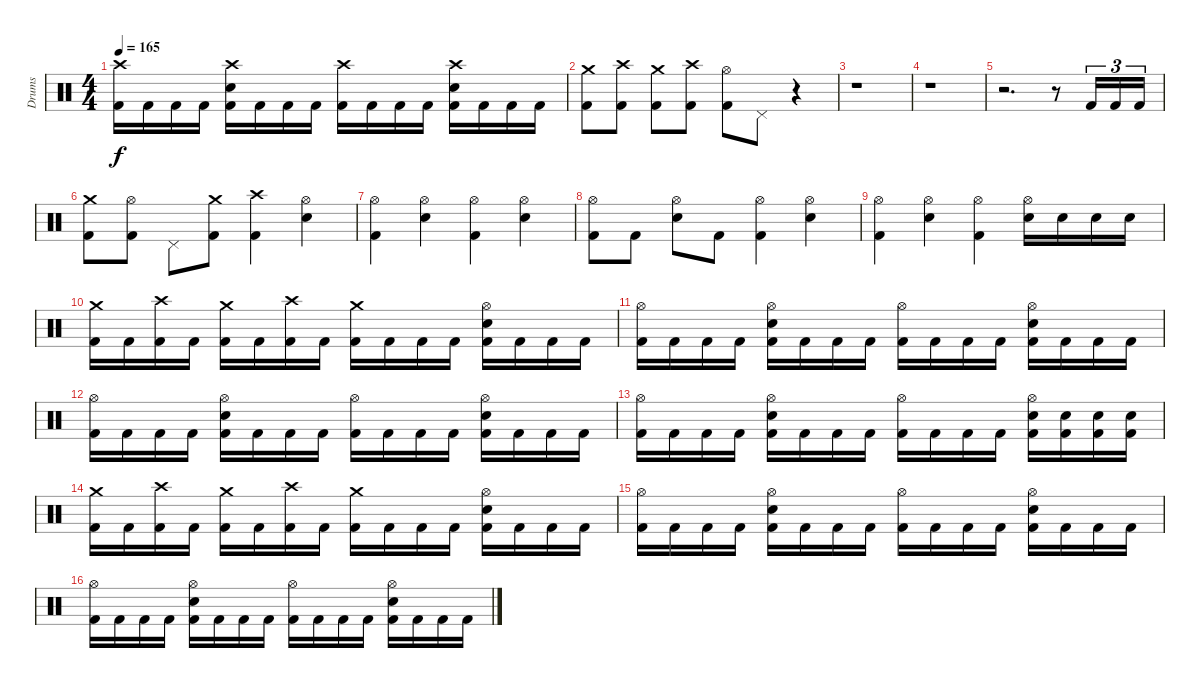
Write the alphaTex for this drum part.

\track ("Drums" "Drums") {instrument percussion}
\staff {score}
\articulation defaults
\ts (4 4)
\tempo 165
\clef neutral
\ks c
("Crash high (hit)" "Kick (hit) 2").16{dy f} "Kick (hit) 2".16 "Kick (hit) 2".16 "Kick (hit) 2".16 ("Crash high (hit)" "Electric Snare (hit)" "Kick (hit) 2").16 "Kick (hit) 2".16 "Kick (hit) 2".16 "Kick (hit) 2".16 ("Crash high (hit)" "Kick (hit) 2").16 "Kick (hit) 2".16 "Kick (hit) 2".16 "Kick (hit) 2".16 ("Crash high (hit)" "Electric Snare (hit)" "Kick (hit) 2").16 "Kick (hit) 2".16 "Kick (hit) 2".16 "Kick (hit) 2".16 |
("Crash medium (hit)" "Kick (hit) 2").8 ("Crash high (hit)" "Kick (hit) 2").8 ("Crash medium (hit)" "Kick (hit) 2").8 ("Crash high (hit)" "Kick (hit) 2").8 ("Hi-Hat (open)" "Kick (hit) 2").8 "Pedal Hi-Hat (hit)".8 r.4 |
r.1 |
r.1 |
r.2{d} r.8 "Kick (hit) 2".16{tu (3 2)} "Kick (hit) 2".16{tu (3 2)} "Kick (hit) 2".16{tu (3 2)} |
("Crash medium (hit)" "Kick (hit) 2").8 ("Hi-Hat (open)" "Kick (hit) 2").8 "Pedal Hi-Hat (hit)".8 ("Crash medium (hit)" "Kick (hit) 2").8 ("Crash high (hit)" "Kick (hit) 2").4 ("Hi-Hat (open)" "Electric Snare (hit)").4 |
("Hi-Hat (open)" "Kick (hit) 2").4 ("Hi-Hat (open)" "Electric Snare (hit)").4 ("Hi-Hat (open)" "Kick (hit) 2").4 ("Hi-Hat (open)" "Electric Snare (hit)").4 |
("Hi-Hat (open)" "Kick (hit) 2").8 "Kick (hit) 2".8 ("Hi-Hat (open)" "Electric Snare (hit)").8 "Kick (hit) 2".8 ("Hi-Hat (open)" "Kick (hit) 2").4 ("Hi-Hat (open)" "Electric Snare (hit)").4 |
("Hi-Hat (open)" "Kick (hit) 2").4 ("Hi-Hat (open)" "Electric Snare (hit)").4 ("Hi-Hat (open)" "Kick (hit) 2").4 ("Hi-Hat (open)" "Electric Snare (hit)").16 "Electric Snare (hit)".16 "Electric Snare (hit)".16 "Electric Snare (hit)".16 |
("Crash medium (hit)" "Kick (hit) 2").16 "Kick (hit) 2".16 ("Crash high (hit)" "Kick (hit) 2").16 "Kick (hit) 2".16 ("Crash medium (hit)" "Kick (hit) 2").16 "Kick (hit) 2".16 ("Crash high (hit)" "Kick (hit) 2").16 "Kick (hit) 2".16 ("Crash medium (hit)" "Kick (hit) 2").16 "Kick (hit) 2".16 "Kick (hit) 2".16 "Kick (hit) 2".16 ("Hi-Hat (open)" "Electric Snare (hit)" "Kick (hit) 2").16 "Kick (hit) 2".16 "Kick (hit) 2".16 "Kick (hit) 2".16 |
("Hi-Hat (open)" "Kick (hit) 2").16 "Kick (hit) 2".16 "Kick (hit) 2".16 "Kick (hit) 2".16 ("Hi-Hat (open)" "Electric Snare (hit)" "Kick (hit) 2").16 "Kick (hit) 2".16 "Kick (hit) 2".16 "Kick (hit) 2".16 ("Hi-Hat (open)" "Kick (hit) 2").16 "Kick (hit) 2".16 "Kick (hit) 2".16 "Kick (hit) 2".16 ("Hi-Hat (open)" "Electric Snare (hit)" "Kick (hit) 2").16 "Kick (hit) 2".16 "Kick (hit) 2".16 "Kick (hit) 2".16 |
("Hi-Hat (open)" "Kick (hit) 2").16 "Kick (hit) 2".16 "Kick (hit) 2".16 "Kick (hit) 2".16 ("Hi-Hat (open)" "Electric Snare (hit)" "Kick (hit) 2").16 "Kick (hit) 2".16 "Kick (hit) 2".16 "Kick (hit) 2".16 ("Hi-Hat (open)" "Kick (hit) 2").16 "Kick (hit) 2".16 "Kick (hit) 2".16 "Kick (hit) 2".16 ("Hi-Hat (open)" "Electric Snare (hit)" "Kick (hit) 2").16 "Kick (hit) 2".16 "Kick (hit) 2".16 "Kick (hit) 2".16 |
("Hi-Hat (open)" "Kick (hit) 2").16 "Kick (hit) 2".16 "Kick (hit) 2".16 "Kick (hit) 2".16 ("Hi-Hat (open)" "Electric Snare (hit)" "Kick (hit) 2").16 "Kick (hit) 2".16 "Kick (hit) 2".16 "Kick (hit) 2".16 ("Hi-Hat (open)" "Kick (hit) 2").16 "Kick (hit) 2".16 "Kick (hit) 2".16 "Kick (hit) 2".16 ("Hi-Hat (open)" "Electric Snare (hit)" "Kick (hit) 2").16 ("Electric Snare (hit)" "Kick (hit) 2").16 ("Electric Snare (hit)" "Kick (hit) 2").16 ("Electric Snare (hit)" "Kick (hit) 2").16 |
("Crash medium (hit)" "Kick (hit) 2").16 "Kick (hit) 2".16 ("Crash high (hit)" "Kick (hit) 2").16 "Kick (hit) 2".16 ("Crash medium (hit)" "Kick (hit) 2").16 "Kick (hit) 2".16 ("Crash high (hit)" "Kick (hit) 2").16 "Kick (hit) 2".16 ("Crash medium (hit)" "Kick (hit) 2").16 "Kick (hit) 2".16 "Kick (hit) 2".16 "Kick (hit) 2".16 ("Hi-Hat (open)" "Electric Snare (hit)" "Kick (hit) 2").16 "Kick (hit) 2".16 "Kick (hit) 2".16 "Kick (hit) 2".16 |
("Hi-Hat (open)" "Kick (hit) 2").16 "Kick (hit) 2".16 "Kick (hit) 2".16 "Kick (hit) 2".16 ("Hi-Hat (open)" "Electric Snare (hit)" "Kick (hit) 2").16 "Kick (hit) 2".16 "Kick (hit) 2".16 "Kick (hit) 2".16 ("Hi-Hat (open)" "Kick (hit) 2").16 "Kick (hit) 2".16 "Kick (hit) 2".16 "Kick (hit) 2".16 ("Hi-Hat (open)" "Electric Snare (hit)" "Kick (hit) 2").16 "Kick (hit) 2".16 "Kick (hit) 2".16 "Kick (hit) 2".16 |
("Hi-Hat (open)" "Kick (hit) 2").16 "Kick (hit) 2".16 "Kick (hit) 2".16 "Kick (hit) 2".16 ("Hi-Hat (open)" "Electric Snare (hit)" "Kick (hit) 2").16 "Kick (hit) 2".16 "Kick (hit) 2".16 "Kick (hit) 2".16 ("Hi-Hat (open)" "Kick (hit) 2").16 "Kick (hit) 2".16 "Kick (hit) 2".16 "Kick (hit) 2".16 ("Hi-Hat (open)" "Electric Snare (hit)" "Kick (hit) 2").16 "Kick (hit) 2".16 "Kick (hit) 2".16 "Kick (hit) 2".16
